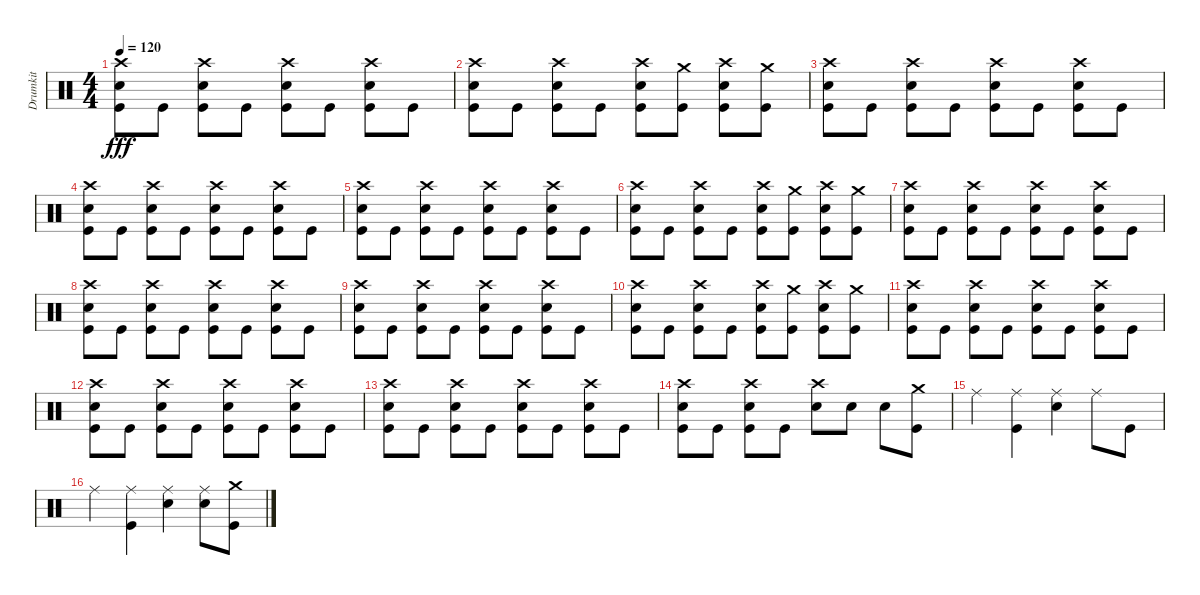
\track ("Drumkit" "Drumkit") {instrument percussion}
\staff {score}
\articulation defaults
\ts (4 4)
\tempo 120
\clef neutral
\ks c
("Kick (hit)" "Snare (hit) 2" "Crash high (hit)").8{dy fff} "Kick (hit)".8 ("Kick (hit)" "Snare (hit) 2" "Crash high (hit)").8 "Kick (hit)".8 ("Kick (hit)" "Snare (hit) 2" "Crash high (hit)").8 "Kick (hit)".8 ("Kick (hit)" "Snare (hit) 2" "Crash high (hit)").8 "Kick (hit)".8 |
("Kick (hit)" "Snare (hit) 2" "Crash high (hit)").8 "Kick (hit)".8 ("Kick (hit)" "Snare (hit) 2" "Crash high (hit)").8 "Kick (hit)".8 ("Kick (hit)" "Snare (hit) 2" "Crash high (hit)").8 ("Kick (hit)" "Crash medium (hit)").8 ("Kick (hit)" "Snare (hit) 2" "Crash high (hit)").8 ("Kick (hit)" "Crash medium (hit)").8 |
("Kick (hit)" "Snare (hit) 2" "Crash high (hit)").8 "Kick (hit)".8 ("Kick (hit)" "Snare (hit) 2" "Crash high (hit)").8 "Kick (hit)".8 ("Kick (hit)" "Snare (hit) 2" "Crash high (hit)").8 "Kick (hit)".8 ("Kick (hit)" "Snare (hit) 2" "Crash high (hit)").8 "Kick (hit)".8 |
("Kick (hit)" "Snare (hit) 2" "Crash high (hit)").8 "Kick (hit)".8 ("Kick (hit)" "Snare (hit) 2" "Crash high (hit)").8 "Kick (hit)".8 ("Kick (hit)" "Snare (hit) 2" "Crash high (hit)").8 "Kick (hit)".8 ("Kick (hit)" "Snare (hit) 2" "Crash high (hit)").8 "Kick (hit)".8 |
("Kick (hit)" "Snare (hit) 2" "Crash high (hit)").8 "Kick (hit)".8 ("Kick (hit)" "Snare (hit) 2" "Crash high (hit)").8 "Kick (hit)".8 ("Kick (hit)" "Snare (hit) 2" "Crash high (hit)").8 "Kick (hit)".8 ("Kick (hit)" "Snare (hit) 2" "Crash high (hit)").8 "Kick (hit)".8 |
("Kick (hit)" "Snare (hit) 2" "Crash high (hit)").8 "Kick (hit)".8 ("Kick (hit)" "Snare (hit) 2" "Crash high (hit)").8 "Kick (hit)".8 ("Kick (hit)" "Snare (hit) 2" "Crash high (hit)").8 ("Kick (hit)" "Crash medium (hit)").8 ("Kick (hit)" "Snare (hit) 2" "Crash high (hit)").8 ("Kick (hit)" "Crash medium (hit)").8 |
("Kick (hit)" "Snare (hit) 2" "Crash high (hit)").8 "Kick (hit)".8 ("Kick (hit)" "Snare (hit) 2" "Crash high (hit)").8 "Kick (hit)".8 ("Kick (hit)" "Snare (hit) 2" "Crash high (hit)").8 "Kick (hit)".8 ("Kick (hit)" "Snare (hit) 2" "Crash high (hit)").8 "Kick (hit)".8 |
("Kick (hit)" "Snare (hit) 2" "Crash high (hit)").8 "Kick (hit)".8 ("Kick (hit)" "Snare (hit) 2" "Crash high (hit)").8 "Kick (hit)".8 ("Kick (hit)" "Snare (hit) 2" "Crash high (hit)").8 "Kick (hit)".8 ("Kick (hit)" "Snare (hit) 2" "Crash high (hit)").8 "Kick (hit)".8 |
("Kick (hit)" "Snare (hit) 2" "Crash high (hit)").8 "Kick (hit)".8 ("Kick (hit)" "Snare (hit) 2" "Crash high (hit)").8 "Kick (hit)".8 ("Kick (hit)" "Snare (hit) 2" "Crash high (hit)").8 "Kick (hit)".8 ("Kick (hit)" "Snare (hit) 2" "Crash high (hit)").8 "Kick (hit)".8 |
("Kick (hit)" "Snare (hit) 2" "Crash high (hit)").8 "Kick (hit)".8 ("Kick (hit)" "Snare (hit) 2" "Crash high (hit)").8 "Kick (hit)".8 ("Kick (hit)" "Snare (hit) 2" "Crash high (hit)").8 ("Kick (hit)" "Crash medium (hit)").8 ("Kick (hit)" "Snare (hit) 2" "Crash high (hit)").8 ("Kick (hit)" "Crash medium (hit)").8 |
("Kick (hit)" "Snare (hit) 2" "Crash high (hit)").8 "Kick (hit)".8 ("Kick (hit)" "Snare (hit) 2" "Crash high (hit)").8 "Kick (hit)".8 ("Kick (hit)" "Snare (hit) 2" "Crash high (hit)").8 "Kick (hit)".8 ("Kick (hit)" "Snare (hit) 2" "Crash high (hit)").8 "Kick (hit)".8 |
("Kick (hit)" "Snare (hit) 2" "Crash high (hit)").8 "Kick (hit)".8 ("Kick (hit)" "Snare (hit) 2" "Crash high (hit)").8 "Kick (hit)".8 ("Kick (hit)" "Snare (hit) 2" "Crash high (hit)").8 "Kick (hit)".8 ("Kick (hit)" "Snare (hit) 2" "Crash high (hit)").8 "Kick (hit)".8 |
("Kick (hit)" "Snare (hit) 2" "Crash high (hit)").8 "Kick (hit)".8 ("Kick (hit)" "Snare (hit) 2" "Crash high (hit)").8 "Kick (hit)".8 ("Kick (hit)" "Snare (hit) 2" "Crash high (hit)").8 "Kick (hit)".8 ("Kick (hit)" "Snare (hit) 2" "Crash high (hit)").8 "Kick (hit)".8 |
("Kick (hit)" "Snare (hit) 2" "Crash high (hit)").8 "Kick (hit)".8 ("Kick (hit)" "Snare (hit) 2" "Crash high (hit)").8 "Kick (hit)".8 ("Snare (hit) 2" "Crash high (hit)").8 "Snare (hit) 2".8 "Snare (hit) 2".8 ("Crash medium (hit)" "Kick (hit)").8 |
"Ride (middle)".4 ("Ride (middle)" "Kick (hit)").4 ("Ride (middle)" "Snare (hit) 2").4 "Ride (middle)".8 "Kick (hit)".8 |
"Ride (middle)".4 ("Ride (middle)" "Kick (hit)").4 ("Ride (middle)" "Snare (hit) 2").4 ("Ride (middle)" "Snare (hit) 2").8 ("Kick (hit)" "Crash medium (hit)").8
